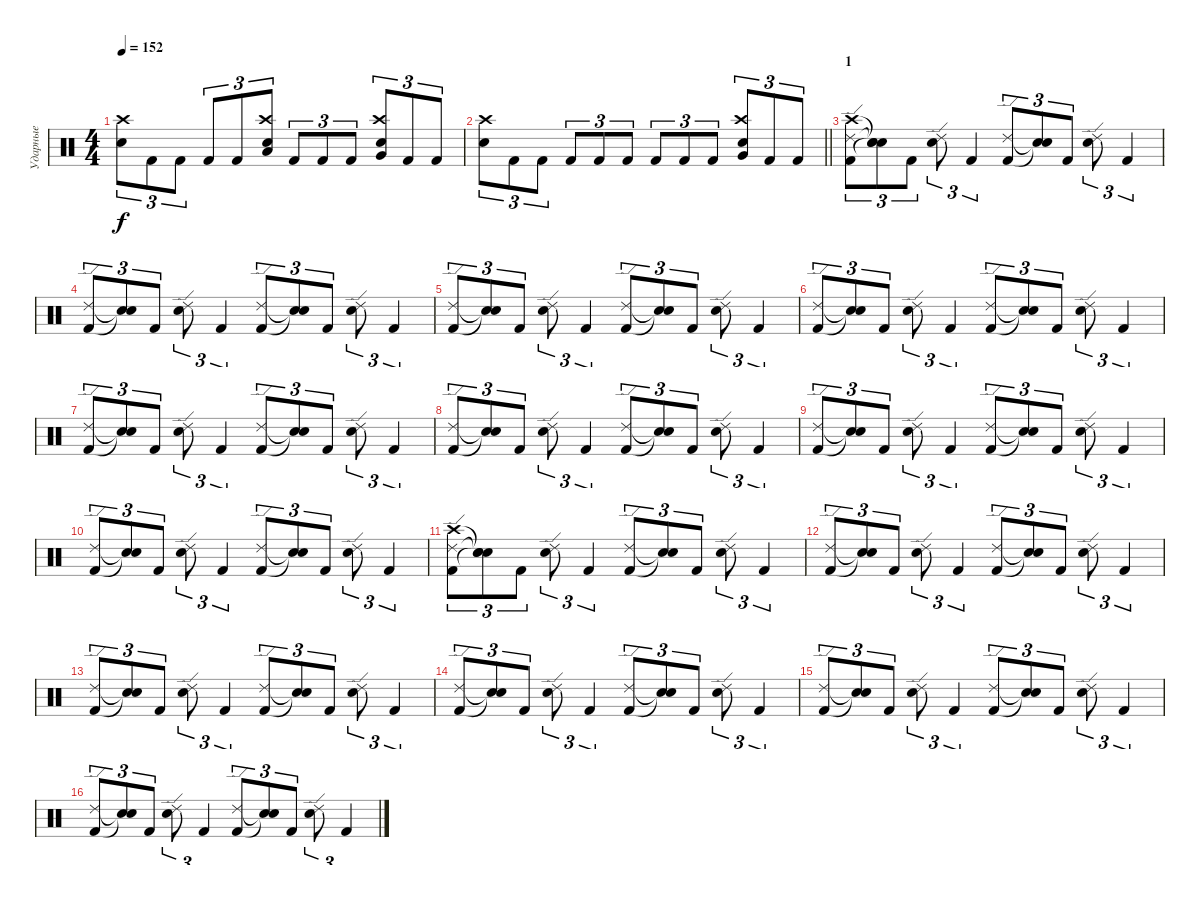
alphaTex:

\track ("Ударные" "Ударные") {instrument percussion}
\staff {score}
\articulation defaults
\ts (4 4)
\tempo 152
\clef neutral
\ks c
("Electric Snare (hit)" "Crash high (hit)").8{tu (3 2) dy f} "Kick (hit) 2".8{tu (3 2)} "Kick (hit) 2".8{tu (3 2)} "Kick (hit) 2".8{tu (3 2)} "Kick (hit) 2".8{tu (3 2)} ("Low Tom (hit)" "Electric Snare (hit)" "Crash high (hit)").8{tu (3 2)} "Kick (hit) 2".8{tu (3 2)} "Kick (hit) 2".8{tu (3 2)} "Kick (hit) 2".8{tu (3 2)} ("Very Low Tom (hit)" "Electric Snare (hit)" "Crash high (hit)").8{tu (3 2)} "Kick (hit) 2".8{tu (3 2)} "Kick (hit) 2".8{tu (3 2)} |
\barLineRight lightlight
("Electric Snare (hit)" "Crash high (hit)").8{tu (3 2)} "Kick (hit) 2".8{tu (3 2)} "Kick (hit) 2".8{tu (3 2)} "Kick (hit) 2".8{tu (3 2)} "Kick (hit) 2".8{tu (3 2)} "Kick (hit) 2".8{tu (3 2)} "Kick (hit) 2".8{tu (3 2)} "Kick (hit) 2".8{tu (3 2)} "Kick (hit) 2".8{tu (3 2)} ("Very Low Tom (hit)" "Electric Snare (hit)" "Crash high (hit)").8{tu (3 2)} "Kick (hit) 2".8{tu (3 2)} "Kick (hit) 2".8{tu (3 2)} |
\section ("" "1")
("Kick (hit) 2" "Crash high (hit)" "Ride (edge) 2").8{tu (3 2)} ("Snare (hit)"{t} "Snare (hit)"{t} "Snare (hit)"{t}).8{tu (3 2)} "Kick (hit) 2".8{tu (3 2)} ("Electric Snare (hit)" "Ride (edge) 2").8{tu (3 2)} "Kick (hit) 2".4{tu (3 2)} ("Kick (hit) 2" "Ride (edge) 2").8{tu (3 2)} ("Snare (hit)"{t} "Snare (hit)"{t}).8{tu (3 2)} "Kick (hit) 2".8{tu (3 2)} ("Electric Snare (hit)" "Ride (edge) 2").8{tu (3 2)} "Kick (hit) 2".4{tu (3 2)} |
("Kick (hit) 2" "Ride (edge) 2").8{tu (3 2)} ("Snare (hit)"{t} "Snare (hit)"{t}).8{tu (3 2)} "Kick (hit) 2".8{tu (3 2)} ("Electric Snare (hit)" "Ride (edge) 2").8{tu (3 2)} "Kick (hit) 2".4{tu (3 2)} ("Kick (hit) 2" "Ride (edge) 2").8{tu (3 2)} ("Snare (hit)"{t} "Snare (hit)"{t}).8{tu (3 2)} "Kick (hit) 2".8{tu (3 2)} ("Electric Snare (hit)" "Ride (edge) 2").8{tu (3 2)} "Kick (hit) 2".4{tu (3 2)} |
("Kick (hit) 2" "Ride (edge) 2").8{tu (3 2)} ("Snare (hit)"{t} "Snare (hit)"{t}).8{tu (3 2)} "Kick (hit) 2".8{tu (3 2)} ("Electric Snare (hit)" "Ride (edge) 2").8{tu (3 2)} "Kick (hit) 2".4{tu (3 2)} ("Kick (hit) 2" "Ride (edge) 2").8{tu (3 2)} ("Snare (hit)"{t} "Snare (hit)"{t}).8{tu (3 2)} "Kick (hit) 2".8{tu (3 2)} ("Electric Snare (hit)" "Ride (edge) 2").8{tu (3 2)} "Kick (hit) 2".4{tu (3 2)} |
("Kick (hit) 2" "Ride (edge) 2").8{tu (3 2)} ("Snare (hit)"{t} "Snare (hit)"{t}).8{tu (3 2)} "Kick (hit) 2".8{tu (3 2)} ("Electric Snare (hit)" "Ride (edge) 2").8{tu (3 2)} "Kick (hit) 2".4{tu (3 2)} ("Kick (hit) 2" "Ride (edge) 2").8{tu (3 2)} ("Snare (hit)"{t} "Snare (hit)"{t}).8{tu (3 2)} "Kick (hit) 2".8{tu (3 2)} ("Electric Snare (hit)" "Ride (edge) 2").8{tu (3 2)} "Kick (hit) 2".4{tu (3 2)} |
("Kick (hit) 2" "Ride (edge) 2").8{tu (3 2)} ("Snare (hit)"{t} "Snare (hit)"{t}).8{tu (3 2)} "Kick (hit) 2".8{tu (3 2)} ("Electric Snare (hit)" "Ride (edge) 2").8{tu (3 2)} "Kick (hit) 2".4{tu (3 2)} ("Kick (hit) 2" "Ride (edge) 2").8{tu (3 2)} ("Snare (hit)"{t} "Snare (hit)"{t}).8{tu (3 2)} "Kick (hit) 2".8{tu (3 2)} ("Electric Snare (hit)" "Ride (edge) 2").8{tu (3 2)} "Kick (hit) 2".4{tu (3 2)} |
("Kick (hit) 2" "Ride (edge) 2").8{tu (3 2)} ("Snare (hit)"{t} "Snare (hit)"{t}).8{tu (3 2)} "Kick (hit) 2".8{tu (3 2)} ("Electric Snare (hit)" "Ride (edge) 2").8{tu (3 2)} "Kick (hit) 2".4{tu (3 2)} ("Kick (hit) 2" "Ride (edge) 2").8{tu (3 2)} ("Snare (hit)"{t} "Snare (hit)"{t}).8{tu (3 2)} "Kick (hit) 2".8{tu (3 2)} ("Electric Snare (hit)" "Ride (edge) 2").8{tu (3 2)} "Kick (hit) 2".4{tu (3 2)} |
("Kick (hit) 2" "Ride (edge) 2").8{tu (3 2)} ("Snare (hit)"{t} "Snare (hit)"{t}).8{tu (3 2)} "Kick (hit) 2".8{tu (3 2)} ("Electric Snare (hit)" "Ride (edge) 2").8{tu (3 2)} "Kick (hit) 2".4{tu (3 2)} ("Kick (hit) 2" "Ride (edge) 2").8{tu (3 2)} ("Snare (hit)"{t} "Snare (hit)"{t}).8{tu (3 2)} "Kick (hit) 2".8{tu (3 2)} ("Electric Snare (hit)" "Ride (edge) 2").8{tu (3 2)} "Kick (hit) 2".4{tu (3 2)} |
("Kick (hit) 2" "Ride (edge) 2").8{tu (3 2)} ("Snare (hit)"{t} "Snare (hit)"{t}).8{tu (3 2)} "Kick (hit) 2".8{tu (3 2)} ("Electric Snare (hit)" "Ride (edge) 2").8{tu (3 2)} "Kick (hit) 2".4{tu (3 2)} ("Kick (hit) 2" "Ride (edge) 2").8{tu (3 2)} ("Snare (hit)"{t} "Snare (hit)"{t}).8{tu (3 2)} "Kick (hit) 2".8{tu (3 2)} ("Electric Snare (hit)" "Ride (edge) 2").8{tu (3 2)} "Kick (hit) 2".4{tu (3 2)} |
("Kick (hit) 2" "Crash high (hit)" "Ride (edge) 2").8{tu (3 2)} ("Snare (hit)"{t} "Snare (hit)"{t} "Snare (hit)"{t}).8{tu (3 2)} "Kick (hit) 2".8{tu (3 2)} ("Electric Snare (hit)" "Ride (edge) 2").8{tu (3 2)} "Kick (hit) 2".4{tu (3 2)} ("Kick (hit) 2" "Ride (edge) 2").8{tu (3 2)} ("Snare (hit)"{t} "Snare (hit)"{t}).8{tu (3 2)} "Kick (hit) 2".8{tu (3 2)} ("Electric Snare (hit)" "Ride (edge) 2").8{tu (3 2)} "Kick (hit) 2".4{tu (3 2)} |
("Kick (hit) 2" "Ride (edge) 2").8{tu (3 2)} ("Snare (hit)"{t} "Snare (hit)"{t}).8{tu (3 2)} "Kick (hit) 2".8{tu (3 2)} ("Electric Snare (hit)" "Ride (edge) 2").8{tu (3 2)} "Kick (hit) 2".4{tu (3 2)} ("Kick (hit) 2" "Ride (edge) 2").8{tu (3 2)} ("Snare (hit)"{t} "Snare (hit)"{t}).8{tu (3 2)} "Kick (hit) 2".8{tu (3 2)} ("Electric Snare (hit)" "Ride (edge) 2").8{tu (3 2)} "Kick (hit) 2".4{tu (3 2)} |
("Kick (hit) 2" "Ride (edge) 2").8{tu (3 2)} ("Snare (hit)"{t} "Snare (hit)"{t}).8{tu (3 2)} "Kick (hit) 2".8{tu (3 2)} ("Electric Snare (hit)" "Ride (edge) 2").8{tu (3 2)} "Kick (hit) 2".4{tu (3 2)} ("Kick (hit) 2" "Ride (edge) 2").8{tu (3 2)} ("Snare (hit)"{t} "Snare (hit)"{t}).8{tu (3 2)} "Kick (hit) 2".8{tu (3 2)} ("Electric Snare (hit)" "Ride (edge) 2").8{tu (3 2)} "Kick (hit) 2".4{tu (3 2)} |
("Kick (hit) 2" "Ride (edge) 2").8{tu (3 2)} ("Snare (hit)"{t} "Snare (hit)"{t}).8{tu (3 2)} "Kick (hit) 2".8{tu (3 2)} ("Electric Snare (hit)" "Ride (edge) 2").8{tu (3 2)} "Kick (hit) 2".4{tu (3 2)} ("Kick (hit) 2" "Ride (edge) 2").8{tu (3 2)} ("Snare (hit)"{t} "Snare (hit)"{t}).8{tu (3 2)} "Kick (hit) 2".8{tu (3 2)} ("Electric Snare (hit)" "Ride (edge) 2").8{tu (3 2)} "Kick (hit) 2".4{tu (3 2)} |
("Kick (hit) 2" "Ride (edge) 2").8{tu (3 2)} ("Snare (hit)"{t} "Snare (hit)"{t}).8{tu (3 2)} "Kick (hit) 2".8{tu (3 2)} ("Electric Snare (hit)" "Ride (edge) 2").8{tu (3 2)} "Kick (hit) 2".4{tu (3 2)} ("Kick (hit) 2" "Ride (edge) 2").8{tu (3 2)} ("Snare (hit)"{t} "Snare (hit)"{t}).8{tu (3 2)} "Kick (hit) 2".8{tu (3 2)} ("Electric Snare (hit)" "Ride (edge) 2").8{tu (3 2)} "Kick (hit) 2".4{tu (3 2)} |
("Kick (hit) 2" "Ride (edge) 2").8{tu (3 2)} ("Snare (hit)"{t} "Snare (hit)"{t}).8{tu (3 2)} "Kick (hit) 2".8{tu (3 2)} ("Electric Snare (hit)" "Ride (edge) 2").8{tu (3 2)} "Kick (hit) 2".4{tu (3 2)} ("Kick (hit) 2" "Ride (edge) 2").8{tu (3 2)} ("Snare (hit)"{t} "Snare (hit)"{t}).8{tu (3 2)} "Kick (hit) 2".8{tu (3 2)} ("Electric Snare (hit)" "Ride (edge) 2").8{tu (3 2)} "Kick (hit) 2".4{tu (3 2)}
